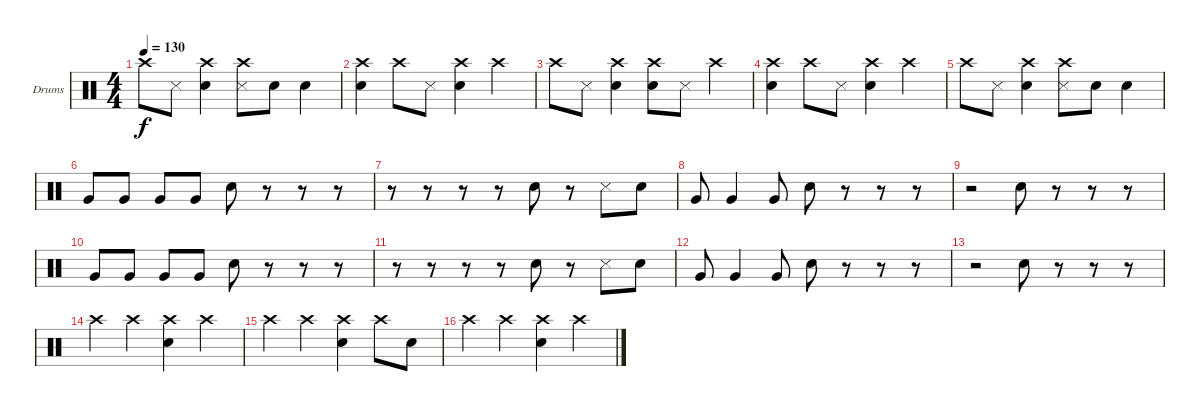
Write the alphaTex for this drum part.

\defaultSystemsLayout 4
\bracketExtendMode groupsimilarinstruments
\firstSystemTrackNameOrientation horizontal
\otherSystemsTrackNameOrientation horizontal
\track ("Drumkit" "Drums") {instrument percussion}
\staff {score}
\articulation defaults
\ts (4 4)
\tempo 130
\clef neutral
\ks c "Crash high (hit)".8{dy f} "Snare (side stick) 3".8
("Snare (hit) 2" "Crash high (hit)").4 ("Snare (side stick) 3" "Crash high (hit)").8 "Snare (hit) 2".8 "Snare (hit) 2".4 |
("Snare (hit) 2" "Crash high (hit)").4 "Crash high (hit)".8 "Snare (side stick) 3".8 ("Snare (hit) 2" "Crash high (hit)").4 "Crash high (hit)".4 |
"Crash high (hit)".8 "Snare (side stick) 3".8 ("Snare (hit) 2" "Crash high (hit)").4 ("Snare (hit) 2" "Crash high (hit)").8 "Snare (side stick) 3".8 "Crash high (hit)".4 |
("Snare (hit) 2" "Crash high (hit)").4 "Crash high (hit)".8 "Snare (side stick) 3".8 ("Snare (hit) 2" "Crash high (hit)").4 "Crash high (hit)".4 |
"Crash high (hit)".8 "Snare (side stick) 3".8 ("Snare (hit) 2" "Crash high (hit)").4 ("Snare (side stick) 3" "Crash high (hit)").8 "Snare (hit) 2".8 "Snare (hit) 2".4 |
"Very Low Tom (hit)".8 "Very Low Tom (hit)".8 "Very Low Tom (hit)".8 "Very Low Tom (hit)".8 "Snare (hit) 2".8 r.8 r.8 r.8 |
r.8 r.8 r.8 r.8 "Snare (hit) 2".8 r.8 "Snare (side stick) 3".8 "Snare (hit) 2".8 |
"Very Low Tom (hit)".8 "Very Low Tom (hit)".4 "Very Low Tom (hit)".8 "Snare (hit) 2".8 r.8 r.8 r.8 |
r.2 "Snare (hit) 2".8 r.8 r.8 r.8 |
"Very Low Tom (hit)".8 "Very Low Tom (hit)".8 "Very Low Tom (hit)".8 "Very Low Tom (hit)".8 "Snare (hit) 2".8 r.8 r.8 r.8 |
r.8 r.8 r.8 r.8 "Snare (hit) 2".8 r.8 "Snare (side stick) 3".8 "Snare (hit) 2".8 |
"Very Low Tom (hit)".8 "Very Low Tom (hit)".4 "Very Low Tom (hit)".8 "Snare (hit) 2".8 r.8 r.8 r.8 |
r.2 "Snare (hit) 2".8 r.8 r.8 r.8 |
"Crash high (hit)".4 "Crash high (hit)".4 ("Snare (hit) 2" "Crash high (hit)").4 "Crash high (hit)".4 |
"Crash high (hit)".4 "Crash high (hit)".4 ("Snare (hit) 2" "Crash high (hit)").4 "Crash high (hit)".8 "Snare (hit) 2".8 |
"Crash high (hit)".4 "Crash high (hit)".4 ("Snare (hit) 2" "Crash high (hit)").4 "Crash high (hit)".4
